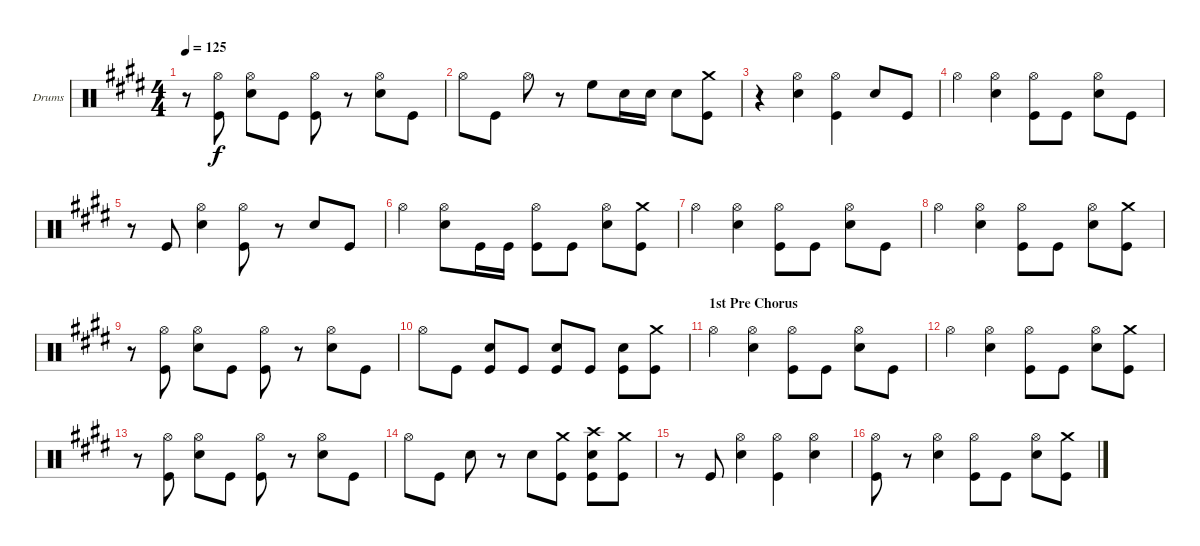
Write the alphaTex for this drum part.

\bracketExtendMode groupsimilarinstruments
\firstSystemTrackNameOrientation horizontal
\otherSystemsTrackNameOrientation horizontal
\track ("Drumkit" "Drums") {instrument percussion}
\staff {score}
\articulation defaults
\ts (4 4)
\tempo 125
\clef neutral
\ks e
r.8{dy f} ("Hi-Hat (open)" "Kick (hit)").8 ("Hi-Hat (open)" "Snare (hit) 2").8 "Kick (hit)".8 ("Hi-Hat (open)" "Kick (hit)").8 r.8 ("Hi-Hat (open)" "Snare (hit) 2").8 "Kick (hit)".8 |
"Hi-Hat (open)".8 "Kick (hit)".8 "Hi-Hat (open)".8 r.8 "High Floor Tom (hit)".8 "Snare (hit) 2".16 "Snare (hit) 2".16 "Snare (hit) 2".8 ("Crash medium (hit)" "Kick (hit)").8 |
r.4 ("Hi-Hat (open)" "Snare (hit) 2").4 ("Hi-Hat (open)" "Kick (hit)").4 "Snare (hit) 2".8 "Kick (hit)".8 |
"Hi-Hat (open)".4 ("Hi-Hat (open)" "Snare (hit) 2").4 ("Hi-Hat (open)" "Kick (hit)").8 "Kick (hit)".8 ("Hi-Hat (open)" "Snare (hit) 2").8 "Kick (hit)".8 |
r.8 "Kick (hit)".8 ("Hi-Hat (open)" "Snare (hit) 2").4 ("Hi-Hat (open)" "Kick (hit)").8 r.8 "Snare (hit) 2".8 "Kick (hit)".8 |
"Hi-Hat (open)".4 ("Hi-Hat (open)" "Snare (hit) 2").8 "Kick (hit)".16 "Kick (hit)".16 ("Hi-Hat (open)" "Kick (hit)").8 "Kick (hit)".8 ("Hi-Hat (open)" "Snare (hit) 2").8 ("Crash medium (hit)" "Kick (hit)").8 |
"Hi-Hat (open)".4 ("Hi-Hat (open)" "Snare (hit) 2").4 ("Hi-Hat (open)" "Kick (hit)").8 "Kick (hit)".8 ("Hi-Hat (open)" "Snare (hit) 2").8 "Kick (hit)".8 |
"Hi-Hat (open)".4 ("Hi-Hat (open)" "Snare (hit) 2").4 ("Hi-Hat (open)" "Kick (hit)").8 "Kick (hit)".8 ("Hi-Hat (open)" "Snare (hit) 2").8 ("Crash medium (hit)" "Kick (hit)").8 |
r.8 ("Hi-Hat (open)" "Kick (hit)").8 ("Hi-Hat (open)" "Snare (hit) 2").8 "Kick (hit)".8 ("Hi-Hat (open)" "Kick (hit)").8 r.8 ("Hi-Hat (open)" "Snare (hit) 2").8 "Kick (hit)".8 |
"Hi-Hat (open)".8 "Kick (hit)".8 ("Snare (hit) 2" "Kick (hit)").8 "Kick (hit)".8 ("Snare (hit) 2" "Kick (hit)").8 "Kick (hit)".8 ("Snare (hit) 2" "Kick (hit)").8 ("Crash medium (hit)" "Kick (hit)").8 |
\section ("" "1st Pre Chorus")
"Hi-Hat (open)".4 ("Hi-Hat (open)" "Snare (hit) 2").4 ("Hi-Hat (open)" "Kick (hit)").8 "Kick (hit)".8 ("Hi-Hat (open)" "Snare (hit) 2").8 "Kick (hit)".8 |
"Hi-Hat (open)".4 ("Hi-Hat (open)" "Snare (hit) 2").4 ("Hi-Hat (open)" "Kick (hit)").8 "Kick (hit)".8 ("Hi-Hat (open)" "Snare (hit) 2").8 ("Crash medium (hit)" "Kick (hit)").8 |
r.8 ("Hi-Hat (open)" "Kick (hit)").8 ("Hi-Hat (open)" "Snare (hit) 2").8 "Kick (hit)".8 ("Hi-Hat (open)" "Kick (hit)").8 r.8 ("Hi-Hat (open)" "Snare (hit) 2").8 "Kick (hit)".8 |
"Hi-Hat (open)".8 "Kick (hit)".8 "Snare (hit) 2".8 r.8 "Snare (hit) 2".8 ("Crash medium (hit)" "Kick (hit)").8 ("Crash high (hit)" "Snare (hit) 2" "Kick (hit)").8 ("Crash medium (hit)" "Kick (hit)").8 |
r.8 "Kick (hit)".8 ("Hi-Hat (open)" "Snare (hit) 2").4 ("Hi-Hat (open)" "Kick (hit)").4 ("Hi-Hat (open)" "Snare (hit) 2").4 |
("Hi-Hat (open)" "Kick (hit)").8 r.8 ("Hi-Hat (open)" "Snare (hit) 2").4 ("Hi-Hat (open)" "Kick (hit)").8 "Kick (hit)".8 ("Hi-Hat (open)" "Snare (hit) 2").8 ("Crash medium (hit)" "Kick (hit)").8
